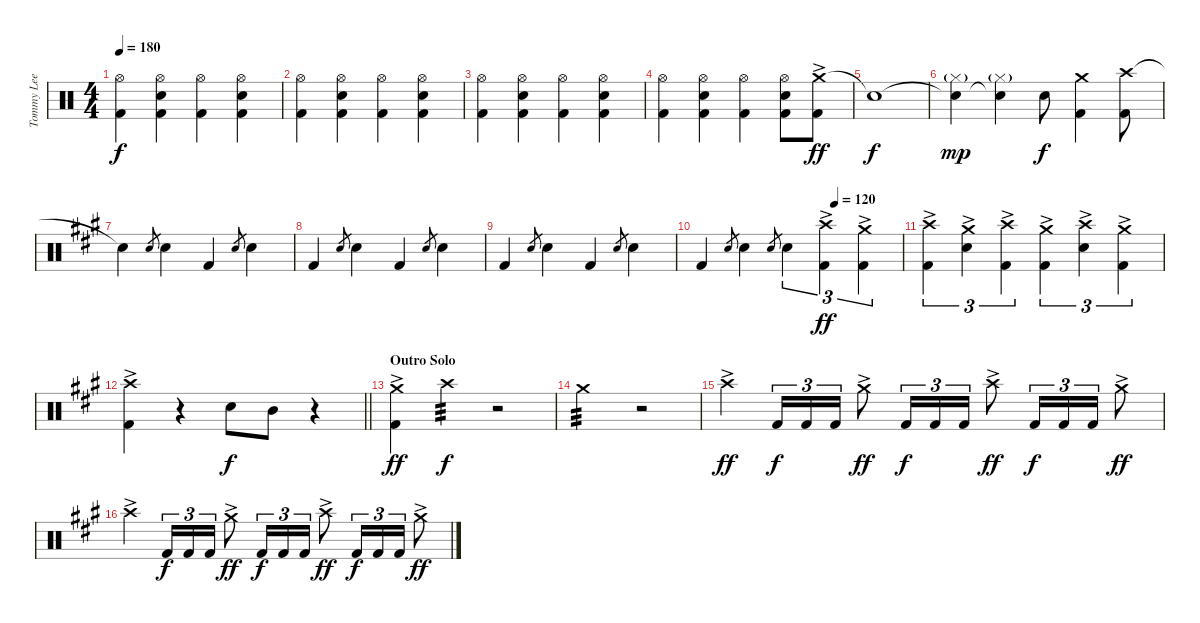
\track ("Tommy Lee" "Tommy Lee") {instrument percussion}
\staff {score}
\articulation defaults
\ts (4 4)
\tempo 180
\clef neutral
\ks c
("Hi-Hat (open)" "Kick (hit) 2").4{dy f} ("Hi-Hat (open)" "Electric Snare (hit)" "Kick (hit) 2").4 ("Hi-Hat (open)" "Kick (hit) 2").4 ("Hi-Hat (open)" "Electric Snare (hit)" "Kick (hit) 2").4 |
("Hi-Hat (open)" "Kick (hit) 2").4 ("Hi-Hat (open)" "Electric Snare (hit)" "Kick (hit) 2").4 ("Hi-Hat (open)" "Kick (hit) 2").4 ("Hi-Hat (open)" "Electric Snare (hit)" "Kick (hit) 2").4 |
("Hi-Hat (open)" "Kick (hit) 2").4 ("Hi-Hat (open)" "Electric Snare (hit)" "Kick (hit) 2").4 ("Hi-Hat (open)" "Kick (hit) 2").4 ("Hi-Hat (open)" "Electric Snare (hit)" "Kick (hit) 2").4 |
("Hi-Hat (open)" "Kick (hit) 2").4 ("Hi-Hat (open)" "Electric Snare (hit)" "Kick (hit) 2").4 ("Hi-Hat (open)" "Kick (hit) 2").4 ("Hi-Hat (open)" "Electric Snare (hit)" "Kick (hit) 2").8 ("Crash medium (hit)"{ac} "Kick (hit) 2").8{dy ff} |
"Snare (hit)"{t}.1{dy f} |
("Snare (hit)"{t} "Hi-Hat (closed)"{g}).4{dy mp} ("Snare (hit)"{t} "Hi-Hat (closed)"{g}).4 "Electric Snare (hit)".8{dy f} ("Crash medium (hit)" "Kick (hit) 2").4 ("Crash high (hit)" "Kick (hit) 2").8 |
\ks a "Snare (hit)"{t}.4 "Electric Snare (hit)".8{gr} "Electric Snare (hit)".4 "Kick (hit) 2".4 "Electric Snare (hit)".8{gr} "Electric Snare (hit)".4
|
"Kick (hit) 2".4 "Electric Snare (hit)".8{gr} "Electric Snare (hit)".4 "Kick (hit) 2".4 "Electric Snare (hit)".8{gr} "Electric Snare (hit)".4 |
"Kick (hit) 2".4 "Electric Snare (hit)".8{gr} "Electric Snare (hit)".4 "Kick (hit) 2".4 "Electric Snare (hit)".8{gr} "Electric Snare (hit)".4 |
\tempo (120 0.6666666666666666)
"Kick (hit) 2".4 "Electric Snare (hit)".8{gr} "Electric Snare (hit)".4 "Electric Snare (hit)".8{gr} "Electric Snare (hit)".4{tu (3 2)} ("Crash high (hit)"{ac} "Kick (hit) 2").4{tu (3 2) dy ff} ("Crash medium (hit)"{ac} "Kick (hit) 2").4{tu (3 2)} |
("Crash high (hit)"{ac} "Kick (hit) 2").4{tu (3 2)} ("Crash medium (hit)"{ac} "Electric Snare (hit)").4{tu (3 2)} ("Crash high (hit)"{ac} "Kick (hit) 2").4{tu (3 2)} ("Crash medium (hit)"{ac} "Kick (hit) 2").4{tu (3 2)} ("Crash high (hit)"{ac} "Electric Snare (hit)").4{tu (3 2)} ("Crash medium (hit)"{ac} "Kick (hit) 2").4{tu (3 2)} |
\barLineRight lightlight
("Crash high (hit)"{ac} "Kick (hit) 2").4 r.4 "Electric Snare (hit)".8{dy f} "Mid Tom (hit)".8 r.4 |
\section ("" "Outro Solo")
("Crash medium (hit)"{ac} "Kick (hit) 2").4{dy ff} "Crash high (hit)".4{tp 3 dy f} r.2 |
"Crash medium (hit)".2{tp 3} r.2 |
"Crash high (hit)"{ac}.4{dy ff} "Kick (hit) 2".16{tu (3 2) dy f} "Kick (hit) 2".16{tu (3 2)} "Kick (hit) 2".16{tu (3 2)} "Crash medium (hit)"{ac}.8{dy ff} "Kick (hit) 2".16{tu (3 2) dy f} "Kick (hit) 2".16{tu (3 2)} "Kick (hit) 2".16{tu (3 2)} "Crash high (hit)"{ac}.8{dy ff} "Kick (hit) 2".16{tu (3 2) dy f} "Kick (hit) 2".16{tu (3 2)} "Kick (hit) 2".16{tu (3 2)} "Crash medium (hit)"{ac}.8{dy ff} |
"Crash high (hit)"{ac}.4 "Kick (hit) 2".16{tu (3 2) dy f} "Kick (hit) 2".16{tu (3 2)} "Kick (hit) 2".16{tu (3 2)} "Crash medium (hit)"{ac}.8{dy ff} "Kick (hit) 2".16{tu (3 2) dy f} "Kick (hit) 2".16{tu (3 2)} "Kick (hit) 2".16{tu (3 2)} "Crash high (hit)"{ac}.8{dy ff} "Kick (hit) 2".16{tu (3 2) dy f} "Kick (hit) 2".16{tu (3 2)} "Kick (hit) 2".16{tu (3 2)} "Crash medium (hit)"{ac}.8{dy ff}
